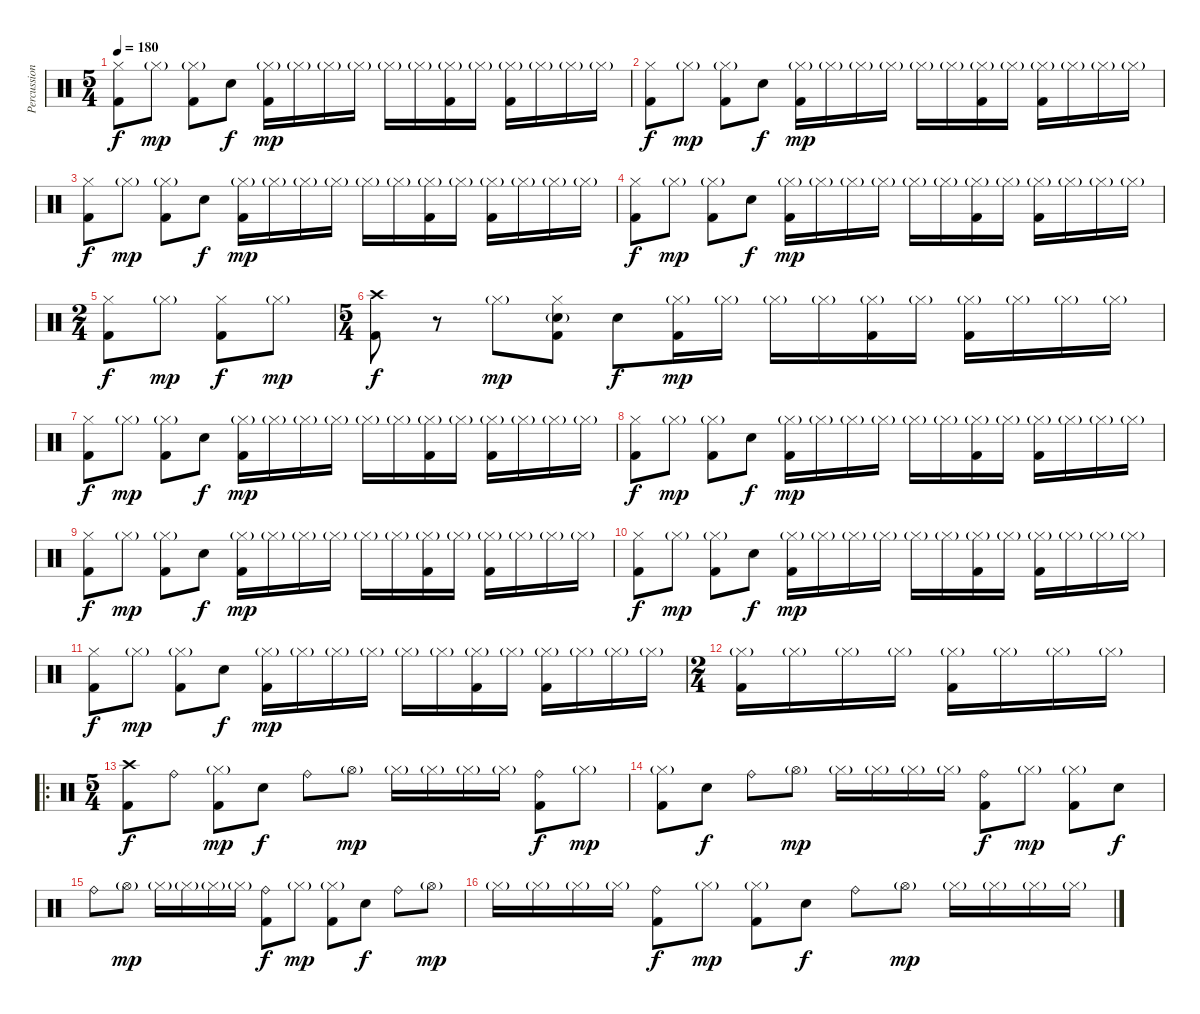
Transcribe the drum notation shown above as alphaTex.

\track ("Percussion" "Percussion") {instrument percussion}
\staff {score}
\articulation defaults
\ts (5 4)
\tempo 180
\clef neutral
\ks c
("Hi-Hat (closed)" "Kick (hit) 2").8{dy f} "Hi-Hat (closed)"{g}.8{dy mp} ("Hi-Hat (closed)"{g} "Kick (hit) 2").8 "Snare (hit) 2".8{dy f} ("Hi-Hat (closed)"{g} "Kick (hit) 2").16{dy mp} "Hi-Hat (closed)"{g}.16 "Hi-Hat (closed)"{g}.16 "Hi-Hat (closed)"{g}.16 "Hi-Hat (closed)"{g}.16 "Hi-Hat (closed)"{g}.16 ("Hi-Hat (closed)"{g} "Kick (hit) 2").16 "Hi-Hat (closed)"{g}.16 ("Hi-Hat (closed)"{g} "Kick (hit) 2").16 "Hi-Hat (closed)"{g}.16 "Hi-Hat (closed)"{g}.16 "Hi-Hat (closed)"{g}.16 |
("Hi-Hat (closed)" "Kick (hit) 2").8{dy f} "Hi-Hat (closed)"{g}.8{dy mp} ("Hi-Hat (closed)"{g} "Kick (hit) 2").8 "Snare (hit) 2".8{dy f} ("Hi-Hat (closed)"{g} "Kick (hit) 2").16{dy mp} "Hi-Hat (closed)"{g}.16 "Hi-Hat (closed)"{g}.16 "Hi-Hat (closed)"{g}.16 "Hi-Hat (closed)"{g}.16 "Hi-Hat (closed)"{g}.16 ("Hi-Hat (closed)"{g} "Kick (hit) 2").16 "Hi-Hat (closed)"{g}.16 ("Hi-Hat (closed)"{g} "Kick (hit) 2").16 "Hi-Hat (closed)"{g}.16 "Hi-Hat (closed)"{g}.16 "Hi-Hat (closed)"{g}.16 |
("Hi-Hat (closed)" "Kick (hit) 2").8{dy f} "Hi-Hat (closed)"{g}.8{dy mp} ("Hi-Hat (closed)"{g} "Kick (hit) 2").8 "Snare (hit) 2".8{dy f} ("Hi-Hat (closed)"{g} "Kick (hit) 2").16{dy mp} "Hi-Hat (closed)"{g}.16 "Hi-Hat (closed)"{g}.16 "Hi-Hat (closed)"{g}.16 "Hi-Hat (closed)"{g}.16 "Hi-Hat (closed)"{g}.16 ("Hi-Hat (closed)"{g} "Kick (hit) 2").16 "Hi-Hat (closed)"{g}.16 ("Hi-Hat (closed)"{g} "Kick (hit) 2").16 "Hi-Hat (closed)"{g}.16 "Hi-Hat (closed)"{g}.16 "Hi-Hat (closed)"{g}.16 |
("Hi-Hat (closed)" "Kick (hit) 2").8{dy f} "Hi-Hat (closed)"{g}.8{dy mp} ("Hi-Hat (closed)"{g} "Kick (hit) 2").8 "Snare (hit) 2".8{dy f} ("Hi-Hat (closed)"{g} "Kick (hit) 2").16{dy mp} "Hi-Hat (closed)"{g}.16 "Hi-Hat (closed)"{g}.16 "Hi-Hat (closed)"{g}.16 "Hi-Hat (closed)"{g}.16 "Hi-Hat (closed)"{g}.16 ("Hi-Hat (closed)"{g} "Kick (hit) 2").16 "Hi-Hat (closed)"{g}.16 ("Hi-Hat (closed)"{g} "Kick (hit) 2").16 "Hi-Hat (closed)"{g}.16 "Hi-Hat (closed)"{g}.16 "Hi-Hat (closed)"{g}.16 |
\ts (2 4)
("Hi-Hat (closed)" "Kick (hit) 2").8{dy f} "Hi-Hat (closed)"{g}.8{dy mp} ("Hi-Hat (closed)" "Kick (hit) 2").8{dy f} "Hi-Hat (closed)"{g}.8{dy mp} |
\ts (5 4)
("Crash high (hit)" "Kick (hit) 2").8{dy f} r.8 "Hi-Hat (closed)"{g}.8{dy mp} ("Hi-Hat (closed)" "Snare (hit) 2"{g} "Kick (hit) 2").8 "Snare (hit) 2".8{dy f} ("Hi-Hat (closed)"{g} "Kick (hit) 2").16{dy mp} "Hi-Hat (closed)"{g}.16 "Hi-Hat (closed)"{g}.16 "Hi-Hat (closed)"{g}.16 ("Hi-Hat (closed)"{g} "Kick (hit) 2").16 "Hi-Hat (closed)"{g}.16 ("Hi-Hat (closed)"{g} "Kick (hit) 2").16 "Hi-Hat (closed)"{g}.16 "Hi-Hat (closed)"{g}.16 "Hi-Hat (closed)"{g}.16 |
("Hi-Hat (closed)" "Kick (hit) 2").8{dy f} "Hi-Hat (closed)"{g}.8{dy mp} ("Hi-Hat (closed)"{g} "Kick (hit) 2").8 "Snare (hit) 2".8{dy f} ("Hi-Hat (closed)"{g} "Kick (hit) 2").16{dy mp} "Hi-Hat (closed)"{g}.16 "Hi-Hat (closed)"{g}.16 "Hi-Hat (closed)"{g}.16 "Hi-Hat (closed)"{g}.16 "Hi-Hat (closed)"{g}.16 ("Hi-Hat (closed)"{g} "Kick (hit) 2").16 "Hi-Hat (closed)"{g}.16 ("Hi-Hat (closed)"{g} "Kick (hit) 2").16 "Hi-Hat (closed)"{g}.16 "Hi-Hat (closed)"{g}.16 "Hi-Hat (closed)"{g}.16 |
("Hi-Hat (closed)" "Kick (hit) 2").8{dy f} "Hi-Hat (closed)"{g}.8{dy mp} ("Hi-Hat (closed)"{g} "Kick (hit) 2").8 "Snare (hit) 2".8{dy f} ("Hi-Hat (closed)"{g} "Kick (hit) 2").16{dy mp} "Hi-Hat (closed)"{g}.16 "Hi-Hat (closed)"{g}.16 "Hi-Hat (closed)"{g}.16 "Hi-Hat (closed)"{g}.16 "Hi-Hat (closed)"{g}.16 ("Hi-Hat (closed)"{g} "Kick (hit) 2").16 "Hi-Hat (closed)"{g}.16 ("Hi-Hat (closed)"{g} "Kick (hit) 2").16 "Hi-Hat (closed)"{g}.16 "Hi-Hat (closed)"{g}.16 "Hi-Hat (closed)"{g}.16 |
("Hi-Hat (closed)" "Kick (hit) 2").8{dy f} "Hi-Hat (closed)"{g}.8{dy mp} ("Hi-Hat (closed)"{g} "Kick (hit) 2").8 "Snare (hit) 2".8{dy f} ("Hi-Hat (closed)"{g} "Kick (hit) 2").16{dy mp} "Hi-Hat (closed)"{g}.16 "Hi-Hat (closed)"{g}.16 "Hi-Hat (closed)"{g}.16 "Hi-Hat (closed)"{g}.16 "Hi-Hat (closed)"{g}.16 ("Hi-Hat (closed)"{g} "Kick (hit) 2").16 "Hi-Hat (closed)"{g}.16 ("Hi-Hat (closed)"{g} "Kick (hit) 2").16 "Hi-Hat (closed)"{g}.16 "Hi-Hat (closed)"{g}.16 "Hi-Hat (closed)"{g}.16 |
("Hi-Hat (closed)" "Kick (hit) 2").8{dy f} "Hi-Hat (closed)"{g}.8{dy mp} ("Hi-Hat (closed)"{g} "Kick (hit) 2").8 "Snare (hit) 2".8{dy f} ("Hi-Hat (closed)"{g} "Kick (hit) 2").16{dy mp} "Hi-Hat (closed)"{g}.16 "Hi-Hat (closed)"{g}.16 "Hi-Hat (closed)"{g}.16 "Hi-Hat (closed)"{g}.16 "Hi-Hat (closed)"{g}.16 ("Hi-Hat (closed)"{g} "Kick (hit) 2").16 "Hi-Hat (closed)"{g}.16 ("Hi-Hat (closed)"{g} "Kick (hit) 2").16 "Hi-Hat (closed)"{g}.16 "Hi-Hat (closed)"{g}.16 "Hi-Hat (closed)"{g}.16 |
("Hi-Hat (closed)" "Kick (hit) 2").8{dy f} "Hi-Hat (closed)"{g}.8{dy mp} ("Hi-Hat (closed)"{g} "Kick (hit) 2").8 "Snare (hit) 2".8{dy f} ("Hi-Hat (closed)"{g} "Kick (hit) 2").16{dy mp} "Hi-Hat (closed)"{g}.16 "Hi-Hat (closed)"{g}.16 "Hi-Hat (closed)"{g}.16 "Hi-Hat (closed)"{g}.16 "Hi-Hat (closed)"{g}.16 ("Hi-Hat (closed)"{g} "Kick (hit) 2").16 "Hi-Hat (closed)"{g}.16 ("Hi-Hat (closed)"{g} "Kick (hit) 2").16 "Hi-Hat (closed)"{g}.16 "Hi-Hat (closed)"{g}.16 "Hi-Hat (closed)"{g}.16 |
\ts (2 4)
("Hi-Hat (closed)"{g} "Kick (hit) 2").16 "Hi-Hat (closed)"{g}.16 "Hi-Hat (closed)"{g}.16 "Hi-Hat (closed)"{g}.16 ("Hi-Hat (closed)"{g} "Kick (hit) 2").16 "Hi-Hat (closed)"{g}.16 "Hi-Hat (closed)"{g}.16 "Hi-Hat (closed)"{g}.16 |
\ro
\ts (5 4)
("Crash high (hit)" "Kick (hit) 2").8{dy f} "Ride (bell)".8 ("Hi-Hat (closed)"{g} "Kick (hit) 2").8{dy mp} "Snare (hit) 2".8{dy f} "Ride (bell)".8 "Hi-Hat (open)"{g}.8{dy mp} "Hi-Hat (closed)"{g}.16 "Hi-Hat (closed)"{g}.16 "Hi-Hat (closed)"{g}.16 "Hi-Hat (closed)"{g}.16 ("Ride (bell)" "Kick (hit) 2").8{dy f} "Hi-Hat (closed)"{g}.8{dy mp} |
("Hi-Hat (closed)"{g} "Kick (hit) 2").8 "Snare (hit) 2".8{dy f} "Ride (bell)".8 "Hi-Hat (open)"{g}.8{dy mp} "Hi-Hat (closed)"{g}.16 "Hi-Hat (closed)"{g}.16 "Hi-Hat (closed)"{g}.16 "Hi-Hat (closed)"{g}.16 ("Ride (bell)" "Kick (hit) 2").8{dy f} "Hi-Hat (closed)"{g}.8{dy mp} ("Hi-Hat (closed)"{g} "Kick (hit) 2").8 "Snare (hit) 2".8{dy f} |
"Ride (bell)".8 "Hi-Hat (open)"{g}.8{dy mp} "Hi-Hat (closed)"{g}.16 "Hi-Hat (closed)"{g}.16 "Hi-Hat (closed)"{g}.16 "Hi-Hat (closed)"{g}.16 ("Ride (bell)" "Kick (hit) 2").8{dy f} "Hi-Hat (closed)"{g}.8{dy mp} ("Hi-Hat (closed)"{g} "Kick (hit) 2").8 "Snare (hit) 2".8{dy f} "Ride (bell)".8 "Hi-Hat (open)"{g}.8{dy mp} |
"Hi-Hat (closed)"{g}.16 "Hi-Hat (closed)"{g}.16 "Hi-Hat (closed)"{g}.16 "Hi-Hat (closed)"{g}.16 ("Ride (bell)" "Kick (hit) 2").8{dy f} "Hi-Hat (closed)"{g}.8{dy mp} ("Hi-Hat (closed)"{g} "Kick (hit) 2").8 "Snare (hit) 2".8{dy f} "Ride (bell)".8 "Hi-Hat (open)"{g}.8{dy mp} "Hi-Hat (closed)"{g}.16 "Hi-Hat (closed)"{g}.16 "Hi-Hat (closed)"{g}.16 "Hi-Hat (closed)"{g}.16
